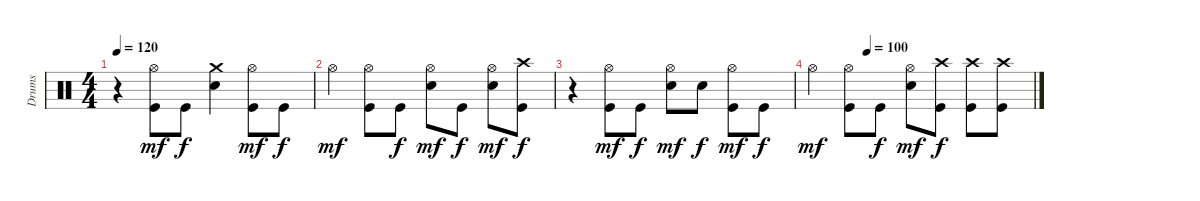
\track ("Drums" "Drums") {instrument percussion}
\staff {score}
\articulation defaults
\ts (4 4)
\tempo 120
\clef neutral
\ks c
r.4{dy f} ("Hi-Hat (open)" "Kick (hit)").8{dy mf} "Kick (hit)".8{dy f} ("Crash medium (hit)" "Snare (hit) 2").4 ("Hi-Hat (open)" "Kick (hit)").8{dy mf} "Kick (hit)".8{dy f} |
"Hi-Hat (open)".4{dy mf} ("Hi-Hat (open)" "Kick (hit)").8 "Kick (hit)".8{dy f} ("Hi-Hat (open)" "Snare (hit) 2").8{dy mf} "Kick (hit)".8{dy f} ("Hi-Hat (open)" "Snare (hit) 2").8{dy mf} ("Crash high (hit)" "Kick (hit)").8{dy f} |
r.4 ("Hi-Hat (open)" "Kick (hit)").8{dy mf} "Kick (hit)".8{dy f} ("Hi-Hat (open)" "Snare (hit) 2").8{dy mf} "Snare (hit) 2".8{dy f} ("Hi-Hat (open)" "Kick (hit)").8{dy mf} "Kick (hit)".8{dy f} |
\tempo (100 0.25)
"Hi-Hat (open)".4{dy mf} ("Hi-Hat (open)" "Kick (hit)").8 "Kick (hit)".8{dy f} ("Hi-Hat (open)" "Snare (hit) 2").8{dy mf} ("Crash high (hit)" "Kick (hit)").8{dy f} ("Crash high (hit)" "Kick (hit)").8 ("Crash high (hit)" "Kick (hit)").8
